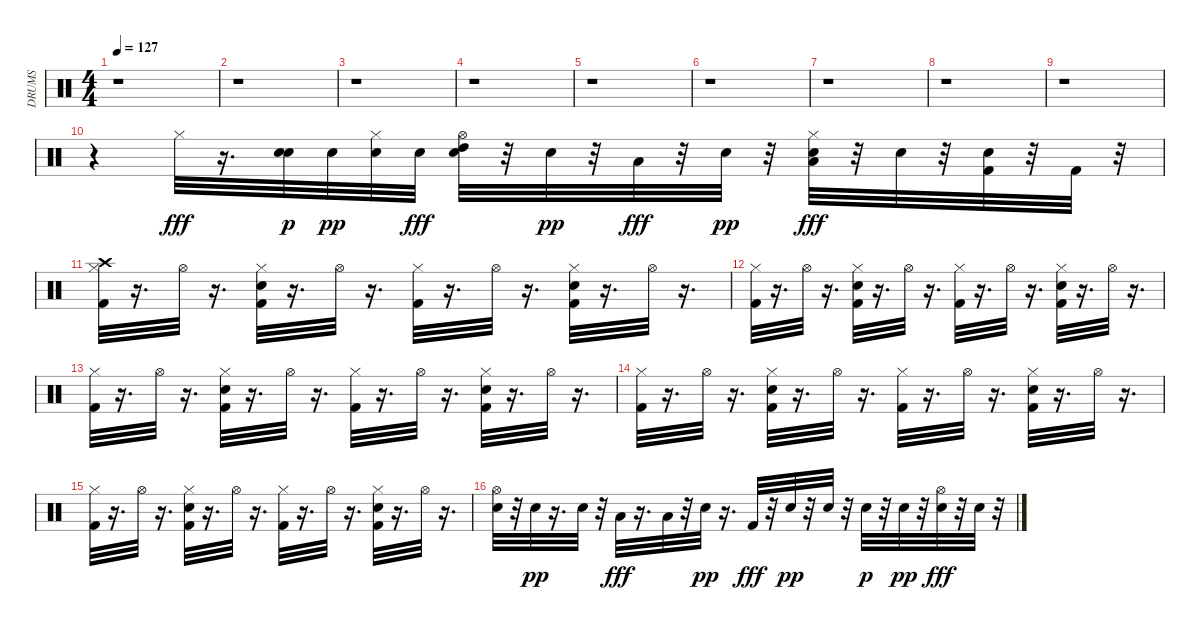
\track ("DRUMS" "DRUMS") {instrument percussion}
\staff {score}
\articulation defaults
\ts (4 4)
\tempo 127
\clef neutral
\ks c
r.1{dy fff} |
r.1 |
r.1 |
r.1 |
r.1 |
r.1 |
r.1 |
r.1 |
r.1 |
r.4 "Hi-Hat (closed)".32 r.16{d} ("Snare (hit) 2" "Snare (hit) 2").32{dy p} "Snare (hit) 2".32{dy pp} ("Hi-Hat (closed)" "Snare (hit) 2").32 "Snare (hit) 2".32{dy fff} ("Snare (hit) 2" "High Tom (hit)" "Hi-Hat (open)").32 r.32 "Snare (hit) 2".32{dy pp} r.32 "Low Tom (hit)".32{dy fff} r.32 "Snare (hit) 2".32{dy pp} r.32 ("Low Floor Tom (hit)" "Hi-Hat (closed)" "Snare (hit) 2").32{dy fff} r.32 "Snare (hit) 2".32 r.32 ("Snare (hit) 2" "Kick (hit) 2").32 r.32 "Kick (hit) 2".32 r.32 |
("Crash high (hit)" "Hi-Hat (closed)" "Kick (hit) 2").32 r.16{d} "Hi-Hat (open)".32 r.16{d} ("Kick (hit) 2" "Hi-Hat (closed)" "Snare (hit) 2").32 r.16{d} "Hi-Hat (open)".32 r.16{d} ("Hi-Hat (closed)" "Kick (hit) 2").32 r.16{d} "Hi-Hat (open)".32 r.16{d} ("Hi-Hat (closed)" "Snare (hit) 2" "Kick (hit) 2").32 r.16{d} "Hi-Hat (open)".32 r.16{d} |
("Hi-Hat (closed)" "Kick (hit) 2").32 r.16{d} "Hi-Hat (open)".32 r.16{d} ("Kick (hit) 2" "Hi-Hat (closed)" "Snare (hit) 2").32 r.16{d} "Hi-Hat (open)".32 r.16{d} ("Hi-Hat (closed)" "Kick (hit) 2").32 r.16{d} "Hi-Hat (open)".32 r.16{d} ("Hi-Hat (closed)" "Snare (hit) 2" "Kick (hit) 2").32 r.16{d} "Hi-Hat (open)".32 r.16{d} |
("Hi-Hat (closed)" "Kick (hit) 2").32 r.16{d} "Hi-Hat (open)".32 r.16{d} ("Hi-Hat (closed)" "Snare (hit) 2" "Kick (hit) 2").32 r.16{d} "Hi-Hat (open)".32 r.16{d} ("Hi-Hat (closed)" "Kick (hit) 2").32 r.16{d} "Hi-Hat (open)".32 r.16{d} ("Kick (hit) 2" "Hi-Hat (closed)" "Snare (hit) 2").32 r.16{d} "Hi-Hat (open)".32 r.16{d} |
("Hi-Hat (closed)" "Kick (hit) 2").32 r.16{d} "Hi-Hat (open)".32 r.16{d} ("Hi-Hat (closed)" "Snare (hit) 2" "Kick (hit) 2").32 r.16{d} "Hi-Hat (open)".32 r.16{d} ("Kick (hit) 2" "Hi-Hat (closed)").32 r.16{d} "Hi-Hat (open)".32 r.16{d} ("Hi-Hat (closed)" "Snare (hit) 2" "Kick (hit) 2").32 r.16{d} "Hi-Hat (open)".32 r.16{d} |
("Hi-Hat (closed)" "Kick (hit) 2").32 r.16{d} "Hi-Hat (open)".32 r.16{d} ("Kick (hit) 2" "Hi-Hat (closed)" "Snare (hit) 2").32 r.16{d} "Hi-Hat (open)".32 r.16{d} ("Hi-Hat (closed)" "Kick (hit) 2").32 r.16{d} "Hi-Hat (open)".32 r.16{d} ("Hi-Hat (closed)" "Snare (hit) 2" "Kick (hit) 2").32 r.16{d} "Hi-Hat (open)".32 r.16{d} |
("Hi-Hat (open)" "Snare (hit) 2").32 r.32 "Snare (hit) 2".32{dy pp} r.16{d} "Snare (hit) 2".32 r.32 "Low Floor Tom (hit)".32{dy fff} r.16{d} "Low Tom (hit)".32 r.32 "Snare (hit) 2".32{dy pp} r.16{d} "Kick (hit) 2".32{dy fff} r.32 "Snare (hit) 2".32{dy pp} r.32 "Snare (hit) 2".32 r.32 "Snare (hit) 2".32{dy p} r.32 "Snare (hit) 2".32{dy pp} r.32 ("Snare (hit) 2" "Hi-Hat (open)").32{dy fff} r.32 "Snare (hit) 2".32 r.32
